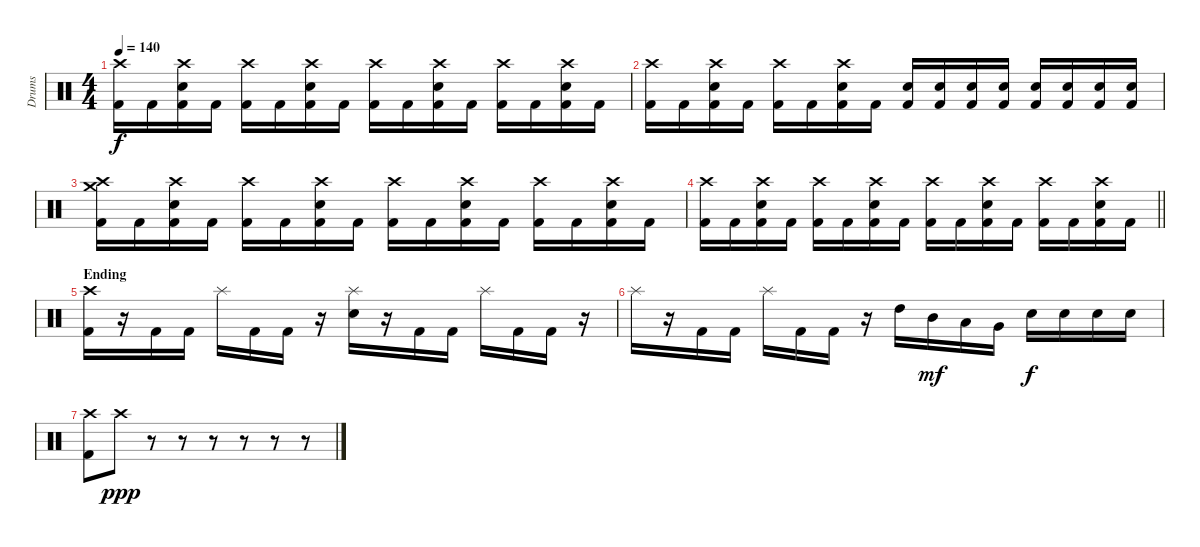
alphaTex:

\track ("Drums" "Drums") {instrument percussion}
\staff {score}
\articulation defaults
\ts (4 4)
\tempo 140
\clef neutral
\ks c
("Crash high (hit)" "Kick (hit) 2").16{dy f} "Kick (hit) 2".16 ("Crash high (hit)" "Electric Snare (hit)" "Kick (hit) 2").16 "Kick (hit) 2".16 ("Crash high (hit)" "Kick (hit) 2").16 "Kick (hit) 2".16 ("Crash high (hit)" "Electric Snare (hit)" "Kick (hit) 2").16 "Kick (hit) 2".16 ("Crash high (hit)" "Kick (hit) 2").16 "Kick (hit) 2".16 ("Crash high (hit)" "Electric Snare (hit)" "Kick (hit) 2").16 "Kick (hit) 2".16 ("Crash high (hit)" "Kick (hit) 2").16 "Kick (hit) 2".16 ("Crash high (hit)" "Electric Snare (hit)" "Kick (hit) 2").16 "Kick (hit) 2".16 |
("Crash high (hit)" "Kick (hit) 2").16 "Kick (hit) 2".16 ("Crash high (hit)" "Electric Snare (hit)" "Kick (hit) 2").16 "Kick (hit) 2".16 ("Crash high (hit)" "Kick (hit) 2").16 "Kick (hit) 2".16 ("Crash high (hit)" "Electric Snare (hit)" "Kick (hit) 2").16 "Kick (hit) 2".16 ("Electric Snare (hit)" "Kick (hit) 2").16 ("Electric Snare (hit)" "Kick (hit) 2").16 ("Electric Snare (hit)" "Kick (hit) 2").16 ("Electric Snare (hit)" "Kick (hit) 2").16 ("Electric Snare (hit)" "Kick (hit) 2").16 ("Electric Snare (hit)" "Kick (hit) 2").16 ("Electric Snare (hit)" "Kick (hit) 2").16 ("Electric Snare (hit)" "Kick (hit) 2").16 |
("Crash high (hit)" "Crash medium (hit)" "Kick (hit) 2").16 "Kick (hit) 2".16 ("Crash high (hit)" "Electric Snare (hit)" "Kick (hit) 2").16 "Kick (hit) 2".16 ("Crash high (hit)" "Kick (hit) 2").16 "Kick (hit) 2".16 ("Crash high (hit)" "Electric Snare (hit)" "Kick (hit) 2").16 "Kick (hit) 2".16 ("Crash high (hit)" "Kick (hit) 2").16 "Kick (hit) 2".16 ("Crash high (hit)" "Electric Snare (hit)" "Kick (hit) 2").16 "Kick (hit) 2".16 ("Crash high (hit)" "Kick (hit) 2").16 "Kick (hit) 2".16 ("Crash high (hit)" "Electric Snare (hit)" "Kick (hit) 2").16 "Kick (hit) 2".16 |
\barLineRight lightlight
("Crash high (hit)" "Kick (hit) 2").16 "Kick (hit) 2".16 ("Crash high (hit)" "Electric Snare (hit)" "Kick (hit) 2").16 "Kick (hit) 2".16 ("Crash high (hit)" "Kick (hit) 2").16 "Kick (hit) 2".16 ("Crash high (hit)" "Electric Snare (hit)" "Kick (hit) 2").16 "Kick (hit) 2".16 ("Crash high (hit)" "Kick (hit) 2").16 "Kick (hit) 2".16 ("Crash high (hit)" "Electric Snare (hit)" "Kick (hit) 2").16 "Kick (hit) 2".16 ("Crash high (hit)" "Kick (hit) 2").16 "Kick (hit) 2".16 ("Crash high (hit)" "Electric Snare (hit)" "Kick (hit) 2").16 "Kick (hit) 2".16 |
\section ("" "Ending")
("Crash high (hit)" "Kick (hit) 2").16 r.16 "Kick (hit) 2".16 "Kick (hit) 2".16 "Splash (hit)".16 "Kick (hit) 2".16 "Kick (hit) 2".16 r.16 ("Splash (hit)" "Electric Snare (hit)").16 r.16 "Kick (hit) 2".16 "Kick (hit) 2".16 "Splash (hit)".16 "Kick (hit) 2".16 "Kick (hit) 2".16 r.16 |
"Splash (hit)".16 r.16 "Kick (hit) 2".16 "Kick (hit) 2".16 "Splash (hit)".16 "Kick (hit) 2".16 "Kick (hit) 2".16 r.16 "High Tom (hit)".16 "Mid Tom (hit)".16{dy mf} "Low Tom (hit)".16 "Very Low Tom (hit)".16 "Electric Snare (hit)".16{dy f} "Electric Snare (hit)".16 "Electric Snare (hit)".16 "Electric Snare (hit)".16 |
("Crash high (hit)" "Kick (hit) 2").8 "Crash high (hit)".8{dy ppp} r.8 r.8 r.8 r.8 r.8 r.8
